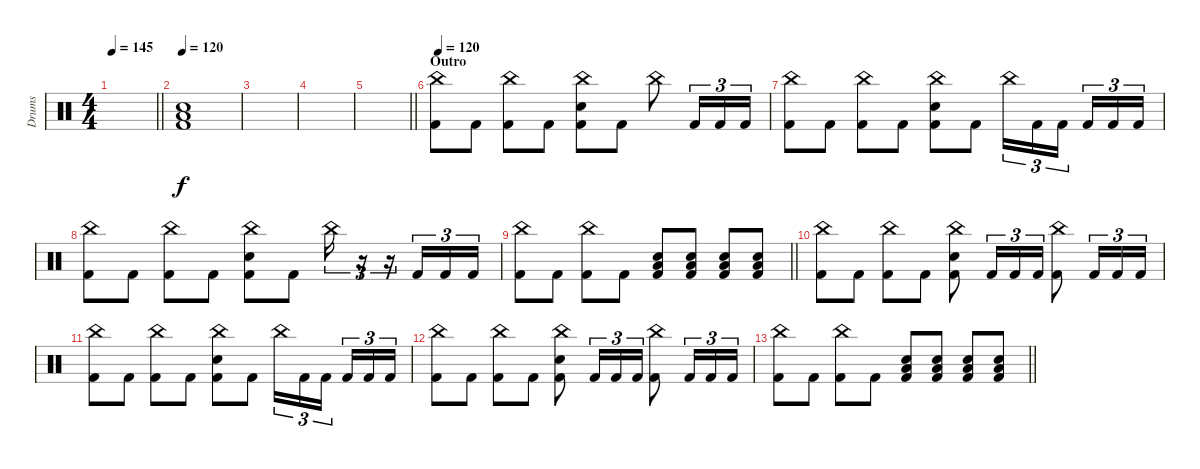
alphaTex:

\track ("Drums" "Drums") {instrument percussion}
\staff {score}
\articulation defaults
\ts (4 4)
\tempo 145
\clef neutral
\barLineRight lightlight
\ks c
|
\tempo 120
("Low Floor Tom (hit)" "Electric Snare (hit)" "Kick (hit) 2").1 |
|
|
\barLineRight lightlight
|
\section ("" "Outro")
\tempo 120
("China (hit)" "Kick (hit) 2").8 "Kick (hit) 2".8 ("China (hit)" "Kick (hit) 2").8 "Kick (hit) 2".8 ("China (hit)" "Electric Snare (hit)" "Kick (hit) 2").8 "Kick (hit) 2".8 "China (hit)".8 "Kick (hit) 2".16{tu (3 2)} "Kick (hit) 2".16{tu (3 2)} "Kick (hit) 2".16{tu (3 2)} |
("China (hit)" "Kick (hit) 2").8 "Kick (hit) 2".8 ("China (hit)" "Kick (hit) 2").8 "Kick (hit) 2".8 ("China (hit)" "Electric Snare (hit)" "Kick (hit) 2").8 "Kick (hit) 2".8 "China (hit)".16{tu (3 2)} "Kick (hit) 2".16{tu (3 2)} "Kick (hit) 2".16{tu (3 2) beam splitsecondary} "Kick (hit) 2".16{tu (3 2)} "Kick (hit) 2".16{tu (3 2)} "Kick (hit) 2".16{tu (3 2)} |
("China (hit)" "Kick (hit) 2").8 "Kick (hit) 2".8 ("China (hit)" "Kick (hit) 2").8 "Kick (hit) 2".8 ("China (hit)" "Electric Snare (hit)" "Kick (hit) 2").8 "Kick (hit) 2".8 "China (hit)".16{tu (3 2)} r.16{tu (3 2)} r.16{tu (3 2)} "Kick (hit) 2".16{tu (3 2)} "Kick (hit) 2".16{tu (3 2)} "Kick (hit) 2".16{tu (3 2)} |
\barLineRight lightlight
("China (hit)" "Kick (hit) 2").8 "Kick (hit) 2".8 ("China (hit)" "Kick (hit) 2").8 "Kick (hit) 2".8 ("Low Floor Tom (hit)" "Electric Snare (hit)" "Kick (hit) 2").8 ("Low Floor Tom (hit)" "Electric Snare (hit)" "Kick (hit) 2").8 ("Low Floor Tom (hit)" "Electric Snare (hit)" "Kick (hit) 2").8 ("Low Floor Tom (hit)" "Electric Snare (hit)" "Kick (hit) 2").8 |
("China (hit)" "Kick (hit) 2").8 "Kick (hit) 2".8 ("China (hit)" "Kick (hit) 2").8 "Kick (hit) 2".8 ("China (hit)" "Electric Snare (hit)" "Kick (hit) 2").8 "Kick (hit) 2".16{tu (3 2)} "Kick (hit) 2".16{tu (3 2)} "Kick (hit) 2".16{tu (3 2)} ("China (hit)" "Kick (hit) 2").8 "Kick (hit) 2".16{tu (3 2)} "Kick (hit) 2".16{tu (3 2)} "Kick (hit) 2".16{tu (3 2)} |
("China (hit)" "Kick (hit) 2").8 "Kick (hit) 2".8 ("China (hit)" "Kick (hit) 2").8 "Kick (hit) 2".8 ("China (hit)" "Electric Snare (hit)" "Kick (hit) 2").8 "Kick (hit) 2".8 "China (hit)".16{tu (3 2)} "Kick (hit) 2".16{tu (3 2)} "Kick (hit) 2".16{tu (3 2) beam splitsecondary} "Kick (hit) 2".16{tu (3 2)} "Kick (hit) 2".16{tu (3 2)} "Kick (hit) 2".16{tu (3 2)} |
("China (hit)" "Kick (hit) 2").8 "Kick (hit) 2".8 ("China (hit)" "Kick (hit) 2").8 "Kick (hit) 2".8 ("China (hit)" "Electric Snare (hit)" "Kick (hit) 2").8 "Kick (hit) 2".16{tu (3 2)} "Kick (hit) 2".16{tu (3 2)} "Kick (hit) 2".16{tu (3 2)} ("China (hit)" "Kick (hit) 2").8 "Kick (hit) 2".16{tu (3 2)} "Kick (hit) 2".16{tu (3 2)} "Kick (hit) 2".16{tu (3 2)} |
\barLineRight lightlight
("China (hit)" "Kick (hit) 2").8 "Kick (hit) 2".8 ("China (hit)" "Kick (hit) 2").8 "Kick (hit) 2".8 ("Low Floor Tom (hit)" "Electric Snare (hit)" "Kick (hit) 2").8 ("Low Floor Tom (hit)" "Electric Snare (hit)" "Kick (hit) 2").8 ("Low Floor Tom (hit)" "Electric Snare (hit)" "Kick (hit) 2").8 ("Low Floor Tom (hit)" "Electric Snare (hit)" "Kick (hit) 2").8
